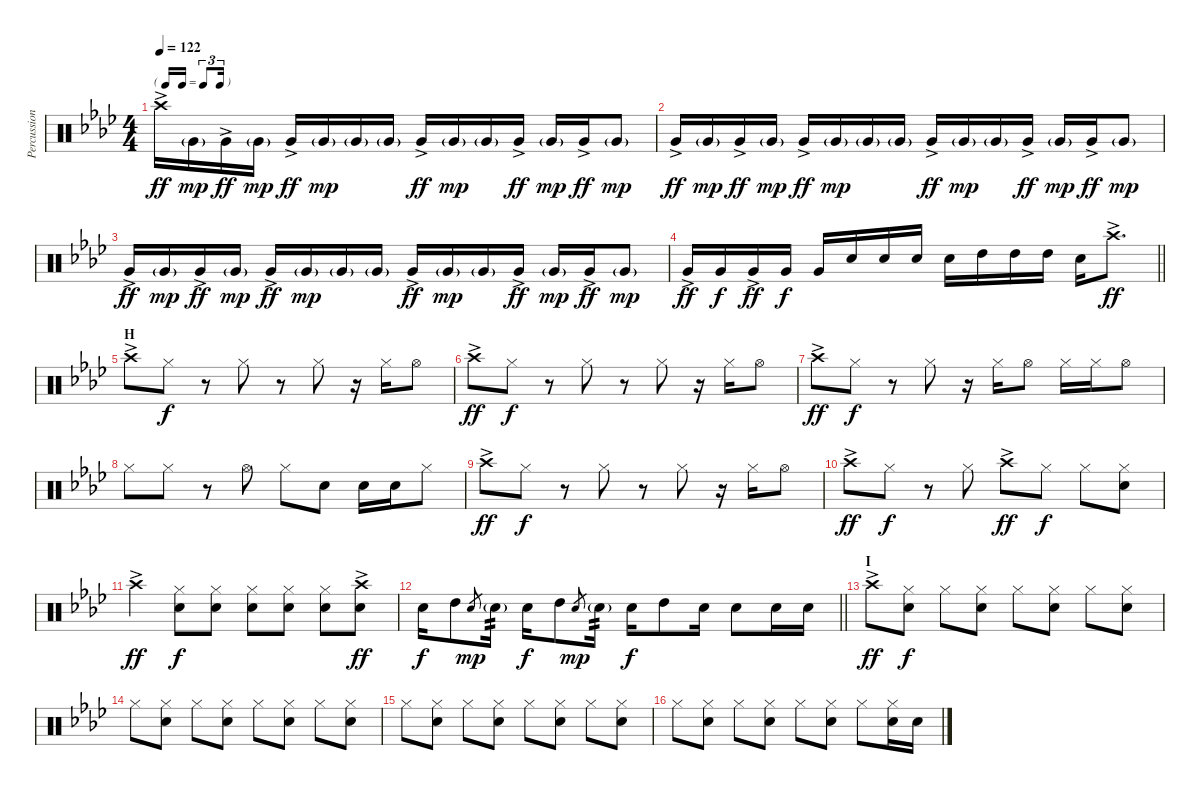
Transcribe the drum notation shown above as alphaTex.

\track ("Percussion Hand" "Percussion") {instrument percussion}
\staff {score}
\articulation defaults
\ts (4 4)
\tf triplet16th
\tempo 122
\clef neutral
\ks ab "Crash high (hit)"{ac}.16{dy ff} "Very Low Tom (hit)"{g}.16{dy mp} "Very Low Tom (hit)"{ac}.16{dy ff} "Very Low Tom (hit)"{g}.16{dy mp} "Very Low Tom (hit)"{ac}.16{dy ff} "Very Low Tom (hit)"{g}.16{dy mp} "Very Low Tom (hit)"{g}.16 "Very Low Tom (hit)"{g}.16 "Very Low Tom (hit)"{ac}.16{dy ff} "Very Low Tom (hit)"{g}.16{dy mp} "Very Low Tom (hit)"{g}.16 "Very Low Tom (hit)"{ac}.16{dy ff} "Very Low Tom (hit)"{g}.16{dy mp} "Very Low Tom (hit)"{ac}.16{dy ff} "Very Low Tom (hit)"{g}.8{dy mp}
|
"Very Low Tom (hit)"{ac}.16{dy ff} "Very Low Tom (hit)"{g}.16{dy mp} "Very Low Tom (hit)"{ac}.16{dy ff} "Very Low Tom (hit)"{g}.16{dy mp} "Very Low Tom (hit)"{ac}.16{dy ff} "Very Low Tom (hit)"{g}.16{dy mp} "Very Low Tom (hit)"{g}.16 "Very Low Tom (hit)"{g}.16 "Very Low Tom (hit)"{ac}.16{dy ff} "Very Low Tom (hit)"{g}.16{dy mp} "Very Low Tom (hit)"{g}.16 "Very Low Tom (hit)"{ac}.16{dy ff} "Very Low Tom (hit)"{g}.16{dy mp} "Very Low Tom (hit)"{ac}.16{dy ff} "Very Low Tom (hit)"{g}.8{dy mp} |
"Very Low Tom (hit)"{ac}.16{dy ff} "Very Low Tom (hit)"{g}.16{dy mp} "Very Low Tom (hit)"{ac}.16{dy ff} "Very Low Tom (hit)"{g}.16{dy mp} "Very Low Tom (hit)"{ac}.16{dy ff} "Very Low Tom (hit)"{g}.16{dy mp} "Very Low Tom (hit)"{g}.16 "Very Low Tom (hit)"{g}.16 "Very Low Tom (hit)"{ac}.16{dy ff} "Very Low Tom (hit)"{g}.16{dy mp} "Very Low Tom (hit)"{g}.16 "Very Low Tom (hit)"{ac}.16{dy ff} "Very Low Tom (hit)"{g}.16{dy mp} "Very Low Tom (hit)"{ac}.16{dy ff} "Very Low Tom (hit)"{g}.8{dy mp} |
\barLineRight lightlight "Very Low Tom (hit)"{ac}.16{dy ff} "Very Low Tom (hit)".16{dy f} "Very Low Tom (hit)"{ac}.16{dy ff} "Very Low Tom (hit)".16{dy f} "Very Low Tom (hit)".16 "Snare (hit) 2".16 "Snare (hit) 2".16 "Snare (hit) 2".16 "Snare (hit) 2".16 "High Tom (hit)".16 "High Tom (hit)".16 "High Tom (hit)".16 "Snare (hit) 2".16 "Crash high (hit)"{ac}.8{d dy ff}
|
\section ("" "H")
"Crash high (hit)"{ac}.8 "Hi-Hat (closed)".8{dy f} r.8 "Hi-Hat (closed)".8 r.8 "Hi-Hat (closed)".8 r.16 "Hi-Hat (closed)".16 "Hi-Hat (open)".8 |
"Crash high (hit)"{ac}.8{dy ff} "Hi-Hat (closed)".8{dy f} r.8 "Hi-Hat (closed)".8 r.8 "Hi-Hat (closed)".8 r.16 "Hi-Hat (closed)".16 "Hi-Hat (open)".8 |
"Crash high (hit)"{ac}.8{dy ff} "Hi-Hat (closed)".8{dy f} r.8 "Hi-Hat (closed)".8 r.16 "Hi-Hat (closed)".16 "Hi-Hat (open)".8 "Hi-Hat (closed)".16 "Hi-Hat (closed)".16 "Hi-Hat (open)".8 |
"Hi-Hat (closed)".8 "Hi-Hat (closed)".8 r.8 "Hi-Hat (open)".8 "Hi-Hat (closed)".8 "Snare (hit) 2".8 "Snare (hit) 2".16 "Snare (hit) 2".16 "Hi-Hat (closed)".8 |
"Crash high (hit)"{ac}.8{dy ff} "Hi-Hat (closed)".8{dy f} r.8 "Hi-Hat (closed)".8 r.8 "Hi-Hat (closed)".8 r.16 "Hi-Hat (closed)".16 "Hi-Hat (open)".8 |
"Crash high (hit)"{ac}.8{dy ff} "Hi-Hat (closed)".8{dy f} r.8 "Hi-Hat (closed)".8 "Crash high (hit)"{ac}.8{dy ff} "Hi-Hat (closed)".8{dy f} "Hi-Hat (closed)".8 ("Hi-Hat (closed)" "Snare (hit) 2").8 |
"Crash high (hit)"{ac}.4{dy ff} ("Hi-Hat (closed)" "Snare (hit) 2").8{dy f} ("Hi-Hat (closed)" "Snare (hit) 2").8 ("Hi-Hat (closed)" "Snare (hit) 2").8 ("Hi-Hat (closed)" "Snare (hit) 2").8 ("Hi-Hat (closed)" "Snare (hit) 2").8 ("Crash high (hit)"{ac} "Snare (hit) 2").8{dy ff} |
\barLineRight lightlight "Snare (hit) 2".16{dy f} "High Tom (hit)".8 "Snare (hit) 2".8{gr dy mp} "Snare (hit) 2"{g}.16{tp 2} "Snare (hit) 2".16{dy f} "High Tom (hit)".8 "Snare (hit) 2".8{gr dy mp} "Snare (hit) 2"{g}.16{tp 2} "Snare (hit) 2".16{dy f} "High Tom (hit)".8 "Snare (hit) 2".16 "Snare (hit) 2".8 "Snare (hit) 2".16 "Snare (hit) 2".16
|
\section ("" "I")
"Crash high (hit)"{ac}.8{dy ff} ("Hi-Hat (closed)" "Snare (hit) 2").8{dy f} "Hi-Hat (closed)".8 ("Hi-Hat (closed)" "Snare (hit) 2").8 "Hi-Hat (closed)".8 ("Hi-Hat (closed)" "Snare (hit) 2").8 "Hi-Hat (closed)".8 ("Snare (hit) 2" "Hi-Hat (closed)").8 |
"Hi-Hat (closed)".8 ("Hi-Hat (closed)" "Snare (hit) 2").8 "Hi-Hat (closed)".8 ("Hi-Hat (closed)" "Snare (hit) 2").8 "Hi-Hat (closed)".8 ("Hi-Hat (closed)" "Snare (hit) 2").8 "Hi-Hat (closed)".8 ("Snare (hit) 2" "Hi-Hat (closed)").8 |
"Hi-Hat (closed)".8 ("Hi-Hat (closed)" "Snare (hit) 2").8 "Hi-Hat (closed)".8 ("Hi-Hat (closed)" "Snare (hit) 2").8 "Hi-Hat (closed)".8 ("Hi-Hat (closed)" "Snare (hit) 2").8 "Hi-Hat (closed)".8 ("Snare (hit) 2" "Hi-Hat (closed)").8 |
"Hi-Hat (closed)".8 ("Hi-Hat (closed)" "Snare (hit) 2").8 "Hi-Hat (closed)".8 ("Hi-Hat (closed)" "Snare (hit) 2").8 "Hi-Hat (closed)".8 ("Hi-Hat (closed)" "Snare (hit) 2").8 "Hi-Hat (closed)".8 ("Snare (hit) 2" "Hi-Hat (closed)").16 "Snare (hit) 2".16
